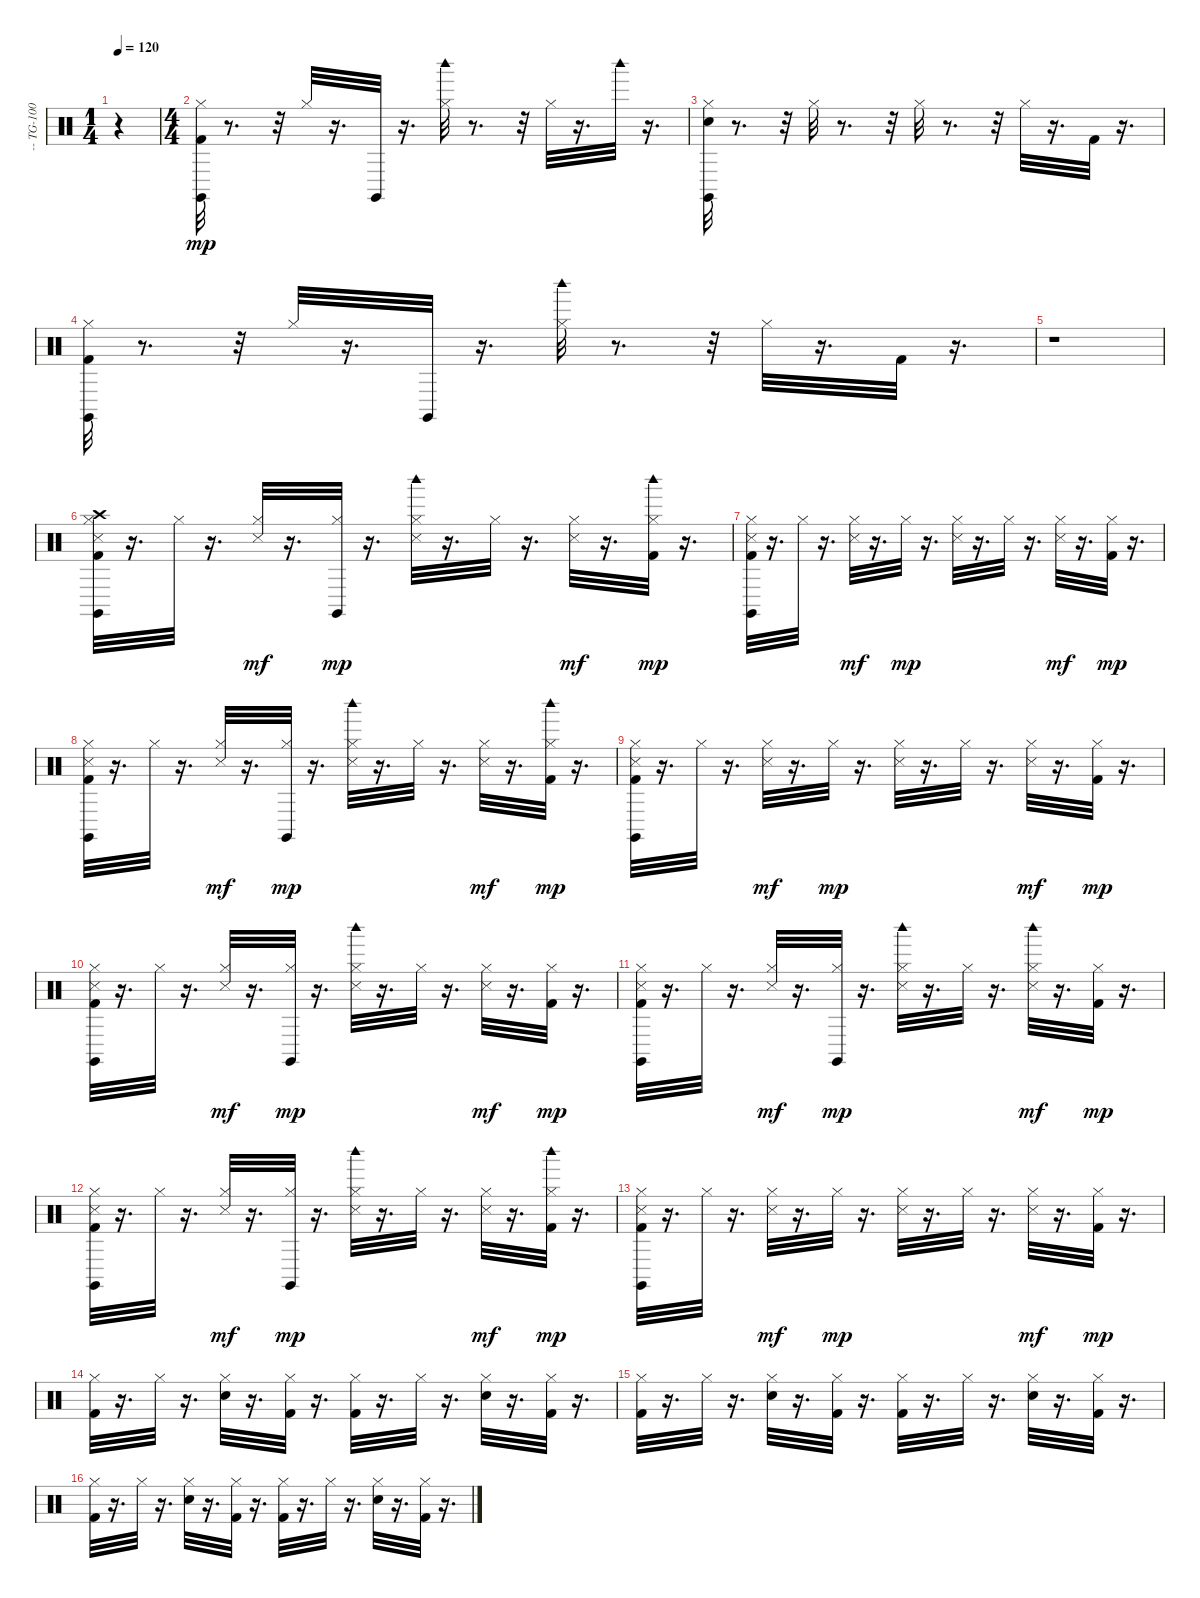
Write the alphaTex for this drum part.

\track ("-- TG-100 GS Drum --" "-- TG-100 ") {instrument percussion}
\staff {score}
\articulation defaults
\ts (1 4)
\tempo 120
\clef neutral
\ks c
r.4{dy mp} |
\ts (4 4)
("Hi-Hat (closed)" "Claves (hit)" "Kick (hit) 2").32 r.8{d} r.32 "Hi-Hat (closed)".32 r.16{d} "Claves (hit)".32 r.16{d} ("Hi-Hat (closed)" "Woodblock high (hit)").32 r.8{d} r.32 "Hi-Hat (closed)".32 r.16{d} "Woodblock high (hit)".32 r.16{d} |
("Hi-Hat (closed)" "Claves (hit)" "Snare (hit) 2").32 r.8{d} r.32 "Hi-Hat (closed)".32 r.8{d} r.32 "Hi-Hat (closed)".32 r.8{d} r.32 "Hi-Hat (closed)".32 r.16{d} "Kick (hit) 2".32 r.16{d} |
("Hi-Hat (closed)" "Claves (hit)" "Kick (hit) 2").32 r.8{d} r.32 "Hi-Hat (closed)".32 r.16{d} "Claves (hit)".32 r.16{d} ("Hi-Hat (closed)" "Woodblock high (hit)").32 r.8{d} r.32 "Hi-Hat (closed)".32 r.16{d} "Kick (hit) 2".32 r.16{d} |
r.1 |
("Hi-Hat (closed)" "Claves (hit)" "Crash high (hit)" "Snare (side stick) 3" "Kick (hit) 2").32 r.16{d} "Hi-Hat (closed)".32 r.16{d} ("Snare (side stick) 3" "Hi-Hat (closed)").32{dy mf} r.16{d} ("Hi-Hat (closed)" "Claves (hit)").32{dy mp} r.16{d} ("Hi-Hat (closed)" "Woodblock high (hit)" "Snare (side stick) 3").32 r.16{d} "Hi-Hat (closed)".32 r.16{d} ("Snare (side stick) 3" "Hi-Hat (closed)").32{dy mf} r.16{d} ("Hi-Hat (closed)" "Woodblock high (hit)" "Kick (hit) 2").32{dy mp} r.16{d} |
("Hi-Hat (closed)" "Claves (hit)" "Snare (side stick) 3" "Kick (hit) 2").32 r.16{d} "Hi-Hat (closed)".32 r.16{d} ("Snare (side stick) 3" "Hi-Hat (closed)").32{dy mf} r.16{d} "Hi-Hat (closed)".32{dy mp} r.16{d} ("Hi-Hat (closed)" "Snare (side stick) 3").32 r.16{d} "Hi-Hat (closed)".32 r.16{d} ("Snare (side stick) 3" "Hi-Hat (closed)").32{dy mf} r.16{d} ("Hi-Hat (closed)" "Kick (hit) 2").32{dy mp} r.16{d} |
("Hi-Hat (closed)" "Claves (hit)" "Snare (side stick) 3" "Kick (hit) 2").32 r.16{d} "Hi-Hat (closed)".32 r.16{d} ("Snare (side stick) 3" "Hi-Hat (closed)").32{dy mf} r.16{d} ("Hi-Hat (closed)" "Claves (hit)").32{dy mp} r.16{d} ("Hi-Hat (closed)" "Woodblock high (hit)" "Snare (side stick) 3").32 r.16{d} "Hi-Hat (closed)".32 r.16{d} ("Snare (side stick) 3" "Hi-Hat (closed)").32{dy mf} r.16{d} ("Hi-Hat (closed)" "Woodblock high (hit)" "Kick (hit) 2").32{dy mp} r.16{d} |
("Hi-Hat (closed)" "Claves (hit)" "Snare (side stick) 3" "Kick (hit) 2").32 r.16{d} "Hi-Hat (closed)".32 r.16{d} ("Snare (side stick) 3" "Hi-Hat (closed)").32{dy mf} r.16{d} "Hi-Hat (closed)".32{dy mp} r.16{d} ("Hi-Hat (closed)" "Snare (side stick) 3").32 r.16{d} "Hi-Hat (closed)".32 r.16{d} ("Snare (side stick) 3" "Hi-Hat (closed)").32{dy mf} r.16{d} ("Hi-Hat (closed)" "Kick (hit) 2").32{dy mp} r.16{d} |
("Hi-Hat (closed)" "Claves (hit)" "Snare (side stick) 3" "Kick (hit) 2").32 r.16{d} "Hi-Hat (closed)".32 r.16{d} ("Snare (side stick) 3" "Hi-Hat (closed)").32{dy mf} r.16{d} ("Hi-Hat (closed)" "Claves (hit)").32{dy mp} r.16{d} ("Hi-Hat (closed)" "Woodblock high (hit)" "Snare (side stick) 3").32 r.16{d} "Hi-Hat (closed)".32 r.16{d} ("Snare (side stick) 3" "Hi-Hat (closed)").32{dy mf} r.16{d} ("Hi-Hat (closed)" "Kick (hit) 2").32{dy mp} r.16{d} |
("Hi-Hat (closed)" "Claves (hit)" "Snare (side stick) 3" "Kick (hit) 2").32 r.16{d} "Hi-Hat (closed)".32 r.16{d} ("Snare (side stick) 3" "Hi-Hat (closed)").32{dy mf} r.16{d} ("Hi-Hat (closed)" "Claves (hit)").32{dy mp} r.16{d} ("Hi-Hat (closed)" "Woodblock high (hit)" "Snare (side stick) 3").32 r.16{d} "Hi-Hat (closed)".32 r.16{d} ("Woodblock high (hit)" "Snare (side stick) 3" "Hi-Hat (closed)").32{dy mf} r.16{d} ("Hi-Hat (closed)" "Kick (hit) 2").32{dy mp} r.16{d} |
("Hi-Hat (closed)" "Claves (hit)" "Snare (side stick) 3" "Kick (hit) 2").32 r.16{d} "Hi-Hat (closed)".32 r.16{d} ("Snare (side stick) 3" "Hi-Hat (closed)").32{dy mf} r.16{d} ("Hi-Hat (closed)" "Claves (hit)").32{dy mp} r.16{d} ("Hi-Hat (closed)" "Woodblock high (hit)" "Snare (side stick) 3").32 r.16{d} "Hi-Hat (closed)".32 r.16{d} ("Snare (side stick) 3" "Hi-Hat (closed)").32{dy mf} r.16{d} ("Hi-Hat (closed)" "Woodblock high (hit)" "Kick (hit) 2").32{dy mp} r.16{d} |
("Hi-Hat (closed)" "Claves (hit)" "Snare (side stick) 3" "Kick (hit) 2").32 r.16{d} "Hi-Hat (closed)".32 r.16{d} ("Snare (side stick) 3" "Hi-Hat (closed)").32{dy mf} r.16{d} "Hi-Hat (closed)".32{dy mp} r.16{d} ("Hi-Hat (closed)" "Snare (side stick) 3").32 r.16{d} "Hi-Hat (closed)".32 r.16{d} ("Snare (side stick) 3" "Hi-Hat (closed)").32{dy mf} r.16{d} ("Hi-Hat (closed)" "Kick (hit) 2").32{dy mp} r.16{d} |
("Hi-Hat (closed)" "Kick (hit) 2").32 r.16{d} "Hi-Hat (closed)".32 r.16{d} ("Hi-Hat (closed)" "Snare (hit) 2").32 r.16{d} ("Hi-Hat (closed)" "Kick (hit) 2").32 r.16{d} ("Hi-Hat (closed)" "Kick (hit) 2").32 r.16{d} "Hi-Hat (closed)".32 r.16{d} ("Hi-Hat (closed)" "Snare (hit) 2").32 r.16{d} ("Hi-Hat (closed)" "Kick (hit) 2").32 r.16{d} |
("Hi-Hat (closed)" "Kick (hit) 2").32 r.16{d} "Hi-Hat (closed)".32 r.16{d} ("Hi-Hat (closed)" "Snare (hit) 2").32 r.16{d} ("Hi-Hat (closed)" "Kick (hit) 2").32 r.16{d} ("Hi-Hat (closed)" "Kick (hit) 2").32 r.16{d} "Hi-Hat (closed)".32 r.16{d} ("Hi-Hat (closed)" "Snare (hit) 2").32 r.16{d} ("Hi-Hat (closed)" "Kick (hit) 2").32 r.16{d} |
("Hi-Hat (closed)" "Kick (hit) 2").32 r.16{d} "Hi-Hat (closed)".32 r.16{d} ("Hi-Hat (closed)" "Snare (hit) 2").32 r.16{d} ("Hi-Hat (closed)" "Kick (hit) 2").32 r.16{d} ("Hi-Hat (closed)" "Kick (hit) 2").32 r.16{d} "Hi-Hat (closed)".32 r.16{d} ("Hi-Hat (closed)" "Snare (hit) 2").32 r.16{d} ("Hi-Hat (closed)" "Kick (hit) 2").32 r.16{d}
